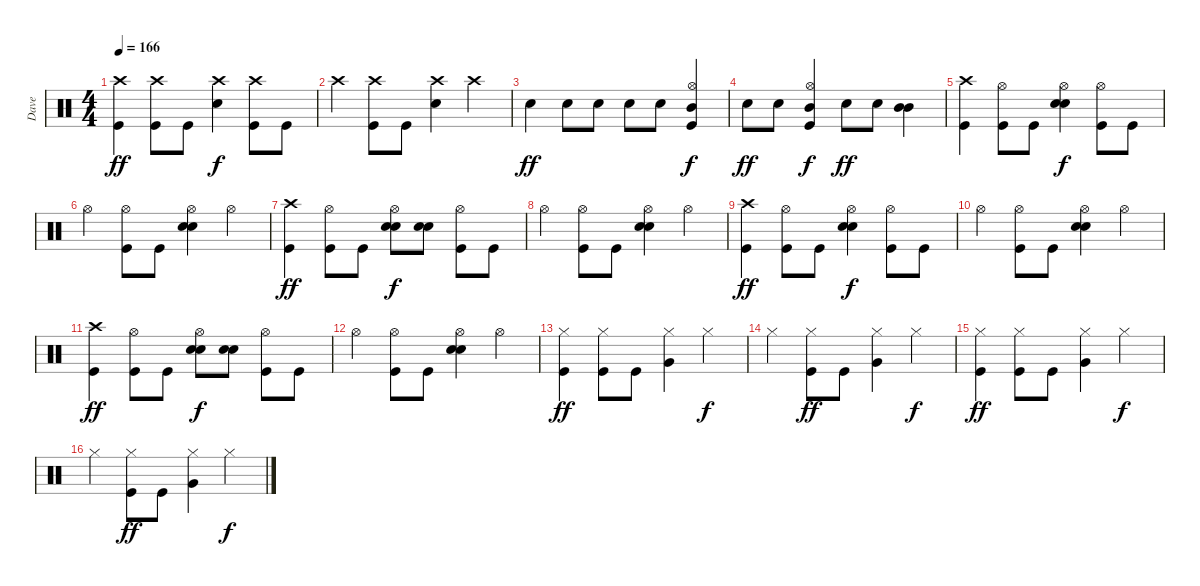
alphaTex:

\track ("Dave" "Dave") {instrument percussion}
\staff {score}
\articulation defaults
\ts (4 4)
\tempo 166
\clef neutral
\ks c
("Crash high (hit)" "Kick (hit)").4{dy ff} ("Crash high (hit)" "Kick (hit)").8 "Kick (hit)".8 ("Crash high (hit)" "Snare (hit) 2").4{dy f} ("Crash high (hit)" "Kick (hit)").8 "Kick (hit)".8 |
"Crash high (hit)".4 ("Crash high (hit)" "Kick (hit)").8 "Kick (hit)".8 ("Crash high (hit)" "Snare (hit) 2").4 "Crash high (hit)".4 |
"Snare (hit) 2".4{dy ff} "Snare (hit) 2".8 "Snare (hit) 2".8 "Snare (hit) 2".8 "Snare (hit) 2".8 ("Hi-Hat (open)" "Mid Tom (hit)" "Kick (hit)").4{dy f} |
"Snare (hit) 2".8{dy ff} "Snare (hit) 2".8 ("Hi-Hat (open)" "Mid Tom (hit)" "Kick (hit)").4{dy f} "Snare (hit) 2".8{dy ff} "Snare (hit) 2".8 ("Mid Tom (hit)" "Mid Tom (hit)").4 |
("Crash high (hit)" "Kick (hit)").4 ("Hi-Hat (open)" "Kick (hit)").8 "Kick (hit)".8 ("Hi-Hat (open)" "Snare (hit) 2" "Snare (hit) 2").4{dy f} ("Hi-Hat (open)" "Kick (hit)").8 "Kick (hit)".8 |
"Hi-Hat (open)".4 ("Hi-Hat (open)" "Kick (hit)").8 "Kick (hit)".8 ("Hi-Hat (open)" "Snare (hit) 2" "Snare (hit) 2").4 "Hi-Hat (open)".4 |
("Crash high (hit)" "Kick (hit)").4{dy ff} ("Hi-Hat (open)" "Kick (hit)").8 "Kick (hit)".8 ("Hi-Hat (open)" "Snare (hit) 2" "Snare (hit) 2").8{dy f} ("Snare (hit) 2" "Snare (hit) 2").8 ("Hi-Hat (open)" "Kick (hit)").8 "Kick (hit)".8 |
"Hi-Hat (open)".4 ("Hi-Hat (open)" "Kick (hit)").8 "Kick (hit)".8 ("Hi-Hat (open)" "Snare (hit) 2" "Snare (hit) 2").4 "Hi-Hat (open)".4 |
("Crash high (hit)" "Kick (hit)").4{dy ff} ("Hi-Hat (open)" "Kick (hit)").8 "Kick (hit)".8 ("Hi-Hat (open)" "Snare (hit) 2" "Snare (hit) 2").4{dy f} ("Hi-Hat (open)" "Kick (hit)").8 "Kick (hit)".8 |
"Hi-Hat (open)".4 ("Hi-Hat (open)" "Kick (hit)").8 "Kick (hit)".8 ("Hi-Hat (open)" "Snare (hit) 2" "Snare (hit) 2").4 "Hi-Hat (open)".4 |
("Crash high (hit)" "Kick (hit)").4{dy ff} ("Hi-Hat (open)" "Kick (hit)").8 "Kick (hit)".8 ("Hi-Hat (open)" "Snare (hit) 2" "Snare (hit) 2").8{dy f} ("Snare (hit) 2" "Snare (hit) 2").8 ("Hi-Hat (open)" "Kick (hit)").8 "Kick (hit)".8 |
"Hi-Hat (open)".4 ("Hi-Hat (open)" "Kick (hit)").8 "Kick (hit)".8 ("Hi-Hat (open)" "Snare (hit) 2" "Snare (hit) 2").4 "Hi-Hat (open)".4 |
("Hi-Hat (closed)" "Kick (hit)").4{dy ff} ("Hi-Hat (closed)" "Kick (hit)").8 "Kick (hit)".8 ("Hi-Hat (closed)" "Very Low Tom (hit)").4 "Hi-Hat (closed)".4{dy f} |
"Hi-Hat (closed)".4 ("Hi-Hat (closed)" "Kick (hit)").8{dy ff} "Kick (hit)".8 ("Hi-Hat (closed)" "Very Low Tom (hit)").4 "Hi-Hat (closed)".4{dy f} |
("Hi-Hat (closed)" "Kick (hit)").4{dy ff} ("Hi-Hat (closed)" "Kick (hit)").8 "Kick (hit)".8 ("Hi-Hat (closed)" "Very Low Tom (hit)").4 "Hi-Hat (closed)".4{dy f} |
"Hi-Hat (closed)".4 ("Hi-Hat (closed)" "Kick (hit)").8{dy ff} "Kick (hit)".8 ("Hi-Hat (closed)" "Very Low Tom (hit)").4 "Hi-Hat (closed)".4{dy f}
